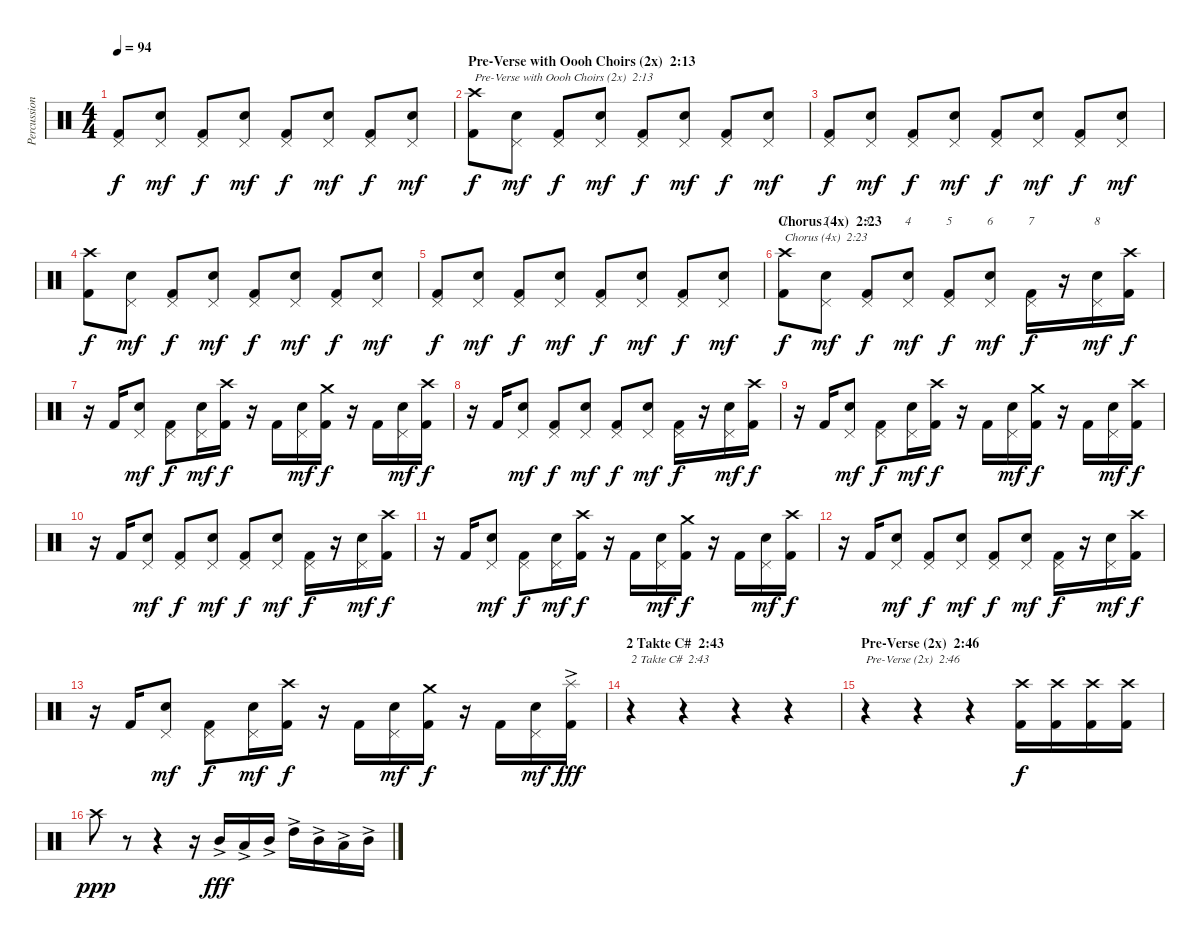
\track ("Percussion" "Percussion") {instrument percussion}
\staff {score}
\articulation defaults
\chord ("1")
\chord ("2")
\chord ("3")
\chord ("4")
\chord ("5")
\chord ("6")
\chord ("7")
\chord ("8")
\ts (4 4)
\tempo 94
\clef neutral
\ks c
("Kick (hit) 2" "Pedal Hi-Hat (hit)").8{dy f} ("Snare (hit) 2" "Pedal Hi-Hat (hit)").8{dy mf} ("Kick (hit) 2" "Pedal Hi-Hat (hit)").8{dy f} ("Snare (hit) 2" "Pedal Hi-Hat (hit)").8{dy mf} ("Kick (hit) 2" "Pedal Hi-Hat (hit)").8{dy f} ("Snare (hit) 2" "Pedal Hi-Hat (hit)").8{dy mf} ("Kick (hit) 2" "Pedal Hi-Hat (hit)").8{dy f} ("Snare (hit) 2" "Pedal Hi-Hat (hit)").8{dy mf} |
\section ("" "Pre-Verse with Oooh Choirs (2x)  2:13")
("Kick (hit) 2" "Crash high (hit)").8{txt "Pre-Verse with Oooh Choirs (2x)  2:13" dy f} ("Snare (hit) 2" "Pedal Hi-Hat (hit)").8{dy mf} ("Kick (hit) 2" "Pedal Hi-Hat (hit)").8{dy f} ("Snare (hit) 2" "Pedal Hi-Hat (hit)").8{dy mf} ("Kick (hit) 2" "Pedal Hi-Hat (hit)").8{dy f} ("Snare (hit) 2" "Pedal Hi-Hat (hit)").8{dy mf} ("Kick (hit) 2" "Pedal Hi-Hat (hit)").8{dy f} ("Snare (hit) 2" "Pedal Hi-Hat (hit)").8{dy mf} |
("Kick (hit) 2" "Pedal Hi-Hat (hit)").8{dy f} ("Snare (hit) 2" "Pedal Hi-Hat (hit)").8{dy mf} ("Kick (hit) 2" "Pedal Hi-Hat (hit)").8{dy f} ("Snare (hit) 2" "Pedal Hi-Hat (hit)").8{dy mf} ("Kick (hit) 2" "Pedal Hi-Hat (hit)").8{dy f} ("Snare (hit) 2" "Pedal Hi-Hat (hit)").8{dy mf} ("Kick (hit) 2" "Pedal Hi-Hat (hit)").8{dy f} ("Snare (hit) 2" "Pedal Hi-Hat (hit)").8{dy mf} |
("Kick (hit) 2" "Crash high (hit)").8{dy f} ("Snare (hit) 2" "Pedal Hi-Hat (hit)").8{dy mf} ("Kick (hit) 2" "Pedal Hi-Hat (hit)").8{dy f} ("Snare (hit) 2" "Pedal Hi-Hat (hit)").8{dy mf} ("Kick (hit) 2" "Pedal Hi-Hat (hit)").8{dy f} ("Snare (hit) 2" "Pedal Hi-Hat (hit)").8{dy mf} ("Kick (hit) 2" "Pedal Hi-Hat (hit)").8{dy f} ("Snare (hit) 2" "Pedal Hi-Hat (hit)").8{dy mf} |
("Kick (hit) 2" "Pedal Hi-Hat (hit)").8{dy f} ("Snare (hit) 2" "Pedal Hi-Hat (hit)").8{dy mf} ("Kick (hit) 2" "Pedal Hi-Hat (hit)").8{dy f} ("Snare (hit) 2" "Pedal Hi-Hat (hit)").8{dy mf} ("Kick (hit) 2" "Pedal Hi-Hat (hit)").8{dy f} ("Snare (hit) 2" "Pedal Hi-Hat (hit)").8{dy mf} ("Kick (hit) 2" "Pedal Hi-Hat (hit)").8{dy f} ("Snare (hit) 2" "Pedal Hi-Hat (hit)").8{dy mf} |
\section ("" "Chorus (4x)  2:23")
("Kick (hit) 2" "Crash high (hit)").8{ch "1" txt "Chorus (4x)  2:23" dy f} ("Snare (hit) 2" "Pedal Hi-Hat (hit)").8{ch "2" dy mf} ("Kick (hit) 2" "Pedal Hi-Hat (hit)").8{ch "3" dy f} ("Snare (hit) 2" "Pedal Hi-Hat (hit)").8{ch "4" dy mf} ("Kick (hit) 2" "Pedal Hi-Hat (hit)").8{ch "5" dy f} ("Snare (hit) 2" "Pedal Hi-Hat (hit)").8{ch "6" dy mf} ("Kick (hit) 2" "Pedal Hi-Hat (hit)").16{ch "7" dy f} r.16 ("Snare (hit) 2" "Pedal Hi-Hat (hit)").16{ch "8" dy mf} ("Kick (hit) 2" "Crash high (hit)").16{dy f} |
r.16 "Kick (hit) 2".16 ("Snare (hit) 2" "Pedal Hi-Hat (hit)").8{dy mf} ("Kick (hit) 2" "Pedal Hi-Hat (hit)").8{dy f} ("Snare (hit) 2" "Pedal Hi-Hat (hit)").16{dy mf} ("Kick (hit) 2" "Crash high (hit)").16{dy f} r.16 "Kick (hit) 2".16 ("Snare (hit) 2" "Pedal Hi-Hat (hit)").16{dy mf} ("Kick (hit) 2" "Crash medium (hit)").16{dy f} r.16 "Kick (hit) 2".16 ("Snare (hit) 2" "Pedal Hi-Hat (hit)").16{dy mf} ("Kick (hit) 2" "Crash high (hit)").16{dy f} |
r.16 "Kick (hit) 2".16 ("Snare (hit) 2" "Pedal Hi-Hat (hit)").8{dy mf} ("Kick (hit) 2" "Pedal Hi-Hat (hit)").8{dy f} ("Snare (hit) 2" "Pedal Hi-Hat (hit)").8{dy mf} ("Kick (hit) 2" "Pedal Hi-Hat (hit)").8{dy f} ("Snare (hit) 2" "Pedal Hi-Hat (hit)").8{dy mf} ("Kick (hit) 2" "Pedal Hi-Hat (hit)").16{dy f} r.16 ("Snare (hit) 2" "Pedal Hi-Hat (hit)").16{dy mf} ("Kick (hit) 2" "Crash high (hit)").16{dy f} |
r.16 "Kick (hit) 2".16 ("Snare (hit) 2" "Pedal Hi-Hat (hit)").8{dy mf} ("Kick (hit) 2" "Pedal Hi-Hat (hit)").8{dy f} ("Snare (hit) 2" "Pedal Hi-Hat (hit)").16{dy mf} ("Kick (hit) 2" "Crash high (hit)").16{dy f} r.16 "Kick (hit) 2".16 ("Snare (hit) 2" "Pedal Hi-Hat (hit)").16{dy mf} ("Kick (hit) 2" "Crash medium (hit)").16{dy f} r.16 "Kick (hit) 2".16 ("Snare (hit) 2" "Pedal Hi-Hat (hit)").16{dy mf} ("Kick (hit) 2" "Crash high (hit)").16{dy f} |
r.16 "Kick (hit) 2".16 ("Snare (hit) 2" "Pedal Hi-Hat (hit)").8{dy mf} ("Kick (hit) 2" "Pedal Hi-Hat (hit)").8{dy f} ("Snare (hit) 2" "Pedal Hi-Hat (hit)").8{dy mf} ("Kick (hit) 2" "Pedal Hi-Hat (hit)").8{dy f} ("Snare (hit) 2" "Pedal Hi-Hat (hit)").8{dy mf} ("Kick (hit) 2" "Pedal Hi-Hat (hit)").16{dy f} r.16 ("Snare (hit) 2" "Pedal Hi-Hat (hit)").16{dy mf} ("Kick (hit) 2" "Crash high (hit)").16{dy f} |
r.16 "Kick (hit) 2".16 ("Snare (hit) 2" "Pedal Hi-Hat (hit)").8{dy mf} ("Kick (hit) 2" "Pedal Hi-Hat (hit)").8{dy f} ("Snare (hit) 2" "Pedal Hi-Hat (hit)").16{dy mf} ("Kick (hit) 2" "Crash high (hit)").16{dy f} r.16 "Kick (hit) 2".16 ("Snare (hit) 2" "Pedal Hi-Hat (hit)").16{dy mf} ("Kick (hit) 2" "Crash medium (hit)").16{dy f} r.16 "Kick (hit) 2".16 ("Snare (hit) 2" "Pedal Hi-Hat (hit)").16{dy mf} ("Kick (hit) 2" "Crash high (hit)").16{dy f} |
r.16 "Kick (hit) 2".16 ("Snare (hit) 2" "Pedal Hi-Hat (hit)").8{dy mf} ("Kick (hit) 2" "Pedal Hi-Hat (hit)").8{dy f} ("Snare (hit) 2" "Pedal Hi-Hat (hit)").8{dy mf} ("Kick (hit) 2" "Pedal Hi-Hat (hit)").8{dy f} ("Snare (hit) 2" "Pedal Hi-Hat (hit)").8{dy mf} ("Kick (hit) 2" "Pedal Hi-Hat (hit)").16{dy f} r.16 ("Snare (hit) 2" "Pedal Hi-Hat (hit)").16{dy mf} ("Kick (hit) 2" "Crash high (hit)").16{dy f} |
r.16 "Kick (hit) 2".16 ("Snare (hit) 2" "Pedal Hi-Hat (hit)").8{dy mf} ("Kick (hit) 2" "Pedal Hi-Hat (hit)").8{dy f} ("Snare (hit) 2" "Pedal Hi-Hat (hit)").16{dy mf} ("Kick (hit) 2" "Crash high (hit)").16{dy f} r.16 "Kick (hit) 2".16 ("Snare (hit) 2" "Pedal Hi-Hat (hit)").16{dy mf} ("Kick (hit) 2" "Crash medium (hit)").16{dy f} r.16 "Kick (hit) 2".16 ("Snare (hit) 2" "Pedal Hi-Hat (hit)").16{dy mf} ("Kick (hit) 2" "Splash (hit)"{ac}).16{dy fff} |
\section ("" "2 Takte C#  2:43")
r.4{txt "2 Takte C#  2:43"} r.4 r.4 r.4 |
\section ("" "Pre-Verse (2x)  2:46")
r.4{txt "Pre-Verse (2x)  2:46"} r.4 r.4 ("Kick (hit) 2" "Crash high (hit)").16{dy f} ("Kick (hit) 2" "Crash high (hit)").16 ("Kick (hit) 2" "Crash high (hit)").16 ("Kick (hit) 2" "Crash high (hit)").16 |
"Crash high (hit)".8{dy ppp} r.8 r.4 r.16 "Mid Tom (hit)"{ac}.16{dy fff} "Low Tom (hit)"{ac}.16 "Mid Tom (hit)"{ac}.16 "High Tom (hit)"{ac}.16 "Mid Tom (hit)"{ac}.16 "Low Tom (hit)"{ac}.16 "Mid Tom (hit)"{ac}.16
